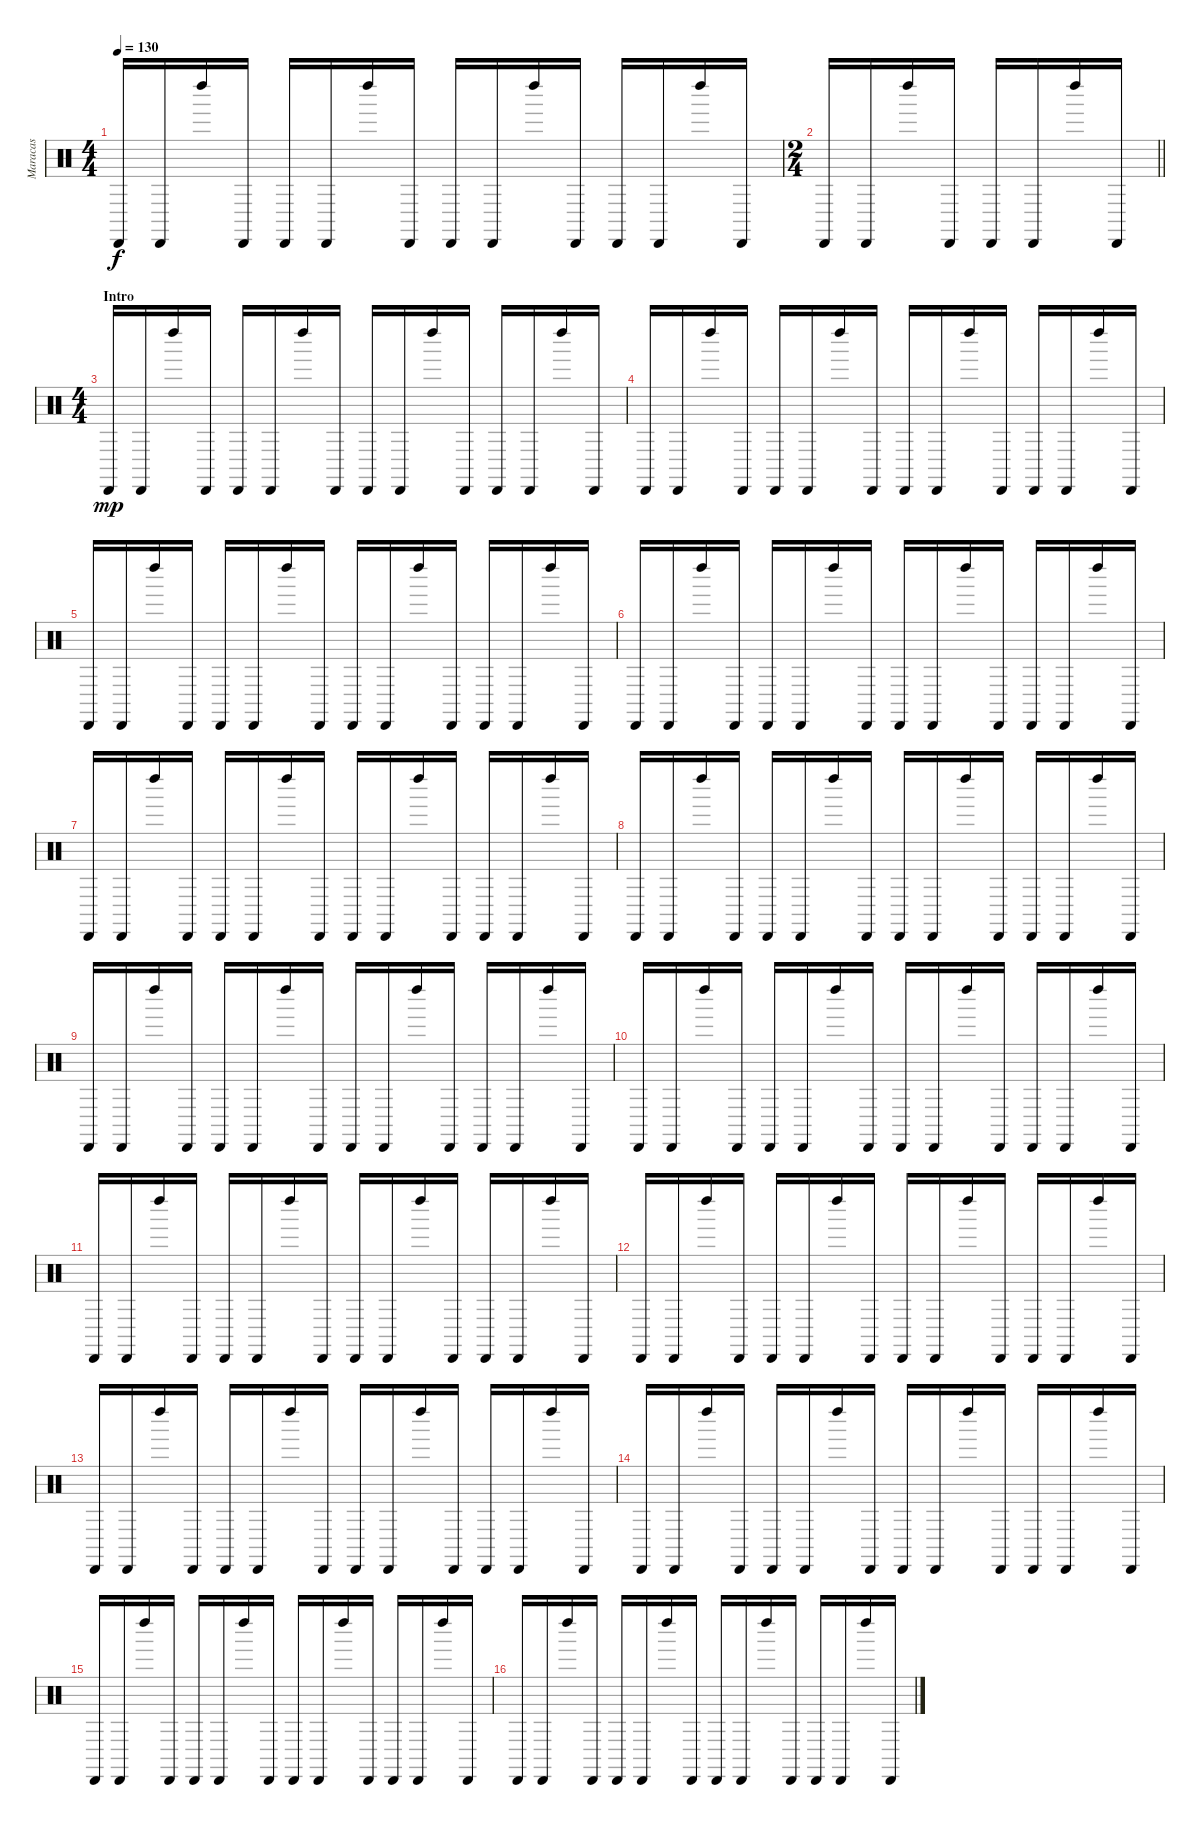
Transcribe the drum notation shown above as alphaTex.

\track ("Maracas" "Maracas") {instrument percussion}
\staff {score}
\articulation defaults
\ts (4 4)
\tempo 130
\clef neutral
\ks c "Cabasa (hit)".16{dy f} "Cabasa (hit)".16 "Left Maraca (hit)".16 "Cabasa (hit)".16 "Cabasa (hit)".16 "Cabasa (hit)".16 "Left Maraca (hit)".16 "Cabasa (hit)".16 "Cabasa (hit)".16 "Cabasa (hit)".16 "Left Maraca (hit)".16 "Cabasa (hit)".16 "Cabasa (hit)".16 "Cabasa (hit)".16 "Left Maraca (hit)".16 "Cabasa (hit)".16
|
\ts (2 4)
\barLineRight lightlight "Cabasa (hit)".16 "Cabasa (hit)".16 "Left Maraca (hit)".16 "Cabasa (hit)".16 "Cabasa (hit)".16 "Cabasa (hit)".16 "Left Maraca (hit)".16 "Cabasa (hit)".16
|
\ts (4 4)
\section ("" "Intro")
"Cabasa (hit)".16{dy mp} "Cabasa (hit)".16 "Left Maraca (hit)".16 "Cabasa (hit)".16 "Cabasa (hit)".16 "Cabasa (hit)".16 "Left Maraca (hit)".16 "Cabasa (hit)".16 "Cabasa (hit)".16 "Cabasa (hit)".16 "Left Maraca (hit)".16 "Cabasa (hit)".16 "Cabasa (hit)".16 "Cabasa (hit)".16 "Left Maraca (hit)".16 "Cabasa (hit)".16 |
"Cabasa (hit)".16 "Cabasa (hit)".16 "Left Maraca (hit)".16 "Cabasa (hit)".16 "Cabasa (hit)".16 "Cabasa (hit)".16 "Left Maraca (hit)".16 "Cabasa (hit)".16 "Cabasa (hit)".16 "Cabasa (hit)".16 "Left Maraca (hit)".16 "Cabasa (hit)".16 "Cabasa (hit)".16 "Cabasa (hit)".16 "Left Maraca (hit)".16 "Cabasa (hit)".16 |
"Cabasa (hit)".16 "Cabasa (hit)".16 "Left Maraca (hit)".16 "Cabasa (hit)".16 "Cabasa (hit)".16 "Cabasa (hit)".16 "Left Maraca (hit)".16 "Cabasa (hit)".16 "Cabasa (hit)".16 "Cabasa (hit)".16 "Left Maraca (hit)".16 "Cabasa (hit)".16 "Cabasa (hit)".16 "Cabasa (hit)".16 "Left Maraca (hit)".16 "Cabasa (hit)".16 |
"Cabasa (hit)".16 "Cabasa (hit)".16 "Left Maraca (hit)".16 "Cabasa (hit)".16 "Cabasa (hit)".16 "Cabasa (hit)".16 "Left Maraca (hit)".16 "Cabasa (hit)".16 "Cabasa (hit)".16 "Cabasa (hit)".16 "Left Maraca (hit)".16 "Cabasa (hit)".16 "Cabasa (hit)".16 "Cabasa (hit)".16 "Left Maraca (hit)".16 "Cabasa (hit)".16 |
"Cabasa (hit)".16 "Cabasa (hit)".16 "Left Maraca (hit)".16 "Cabasa (hit)".16 "Cabasa (hit)".16 "Cabasa (hit)".16 "Left Maraca (hit)".16 "Cabasa (hit)".16 "Cabasa (hit)".16 "Cabasa (hit)".16 "Left Maraca (hit)".16 "Cabasa (hit)".16 "Cabasa (hit)".16 "Cabasa (hit)".16 "Left Maraca (hit)".16 "Cabasa (hit)".16 |
"Cabasa (hit)".16 "Cabasa (hit)".16 "Left Maraca (hit)".16 "Cabasa (hit)".16 "Cabasa (hit)".16 "Cabasa (hit)".16 "Left Maraca (hit)".16 "Cabasa (hit)".16 "Cabasa (hit)".16 "Cabasa (hit)".16 "Left Maraca (hit)".16 "Cabasa (hit)".16 "Cabasa (hit)".16 "Cabasa (hit)".16 "Left Maraca (hit)".16 "Cabasa (hit)".16 |
"Cabasa (hit)".16 "Cabasa (hit)".16 "Left Maraca (hit)".16 "Cabasa (hit)".16 "Cabasa (hit)".16 "Cabasa (hit)".16 "Left Maraca (hit)".16 "Cabasa (hit)".16 "Cabasa (hit)".16 "Cabasa (hit)".16 "Left Maraca (hit)".16 "Cabasa (hit)".16 "Cabasa (hit)".16 "Cabasa (hit)".16 "Left Maraca (hit)".16 "Cabasa (hit)".16 |
"Cabasa (hit)".16 "Cabasa (hit)".16 "Left Maraca (hit)".16 "Cabasa (hit)".16 "Cabasa (hit)".16 "Cabasa (hit)".16 "Left Maraca (hit)".16 "Cabasa (hit)".16 "Cabasa (hit)".16 "Cabasa (hit)".16 "Left Maraca (hit)".16 "Cabasa (hit)".16 "Cabasa (hit)".16 "Cabasa (hit)".16 "Left Maraca (hit)".16 "Cabasa (hit)".16 |
"Cabasa (hit)".16 "Cabasa (hit)".16 "Left Maraca (hit)".16 "Cabasa (hit)".16 "Cabasa (hit)".16 "Cabasa (hit)".16 "Left Maraca (hit)".16 "Cabasa (hit)".16 "Cabasa (hit)".16 "Cabasa (hit)".16 "Left Maraca (hit)".16 "Cabasa (hit)".16 "Cabasa (hit)".16 "Cabasa (hit)".16 "Left Maraca (hit)".16 "Cabasa (hit)".16 |
"Cabasa (hit)".16 "Cabasa (hit)".16 "Left Maraca (hit)".16 "Cabasa (hit)".16 "Cabasa (hit)".16 "Cabasa (hit)".16 "Left Maraca (hit)".16 "Cabasa (hit)".16 "Cabasa (hit)".16 "Cabasa (hit)".16 "Left Maraca (hit)".16 "Cabasa (hit)".16 "Cabasa (hit)".16 "Cabasa (hit)".16 "Left Maraca (hit)".16 "Cabasa (hit)".16 |
"Cabasa (hit)".16 "Cabasa (hit)".16 "Left Maraca (hit)".16 "Cabasa (hit)".16 "Cabasa (hit)".16 "Cabasa (hit)".16 "Left Maraca (hit)".16 "Cabasa (hit)".16 "Cabasa (hit)".16 "Cabasa (hit)".16 "Left Maraca (hit)".16 "Cabasa (hit)".16 "Cabasa (hit)".16 "Cabasa (hit)".16 "Left Maraca (hit)".16 "Cabasa (hit)".16 |
"Cabasa (hit)".16 "Cabasa (hit)".16 "Left Maraca (hit)".16 "Cabasa (hit)".16 "Cabasa (hit)".16 "Cabasa (hit)".16 "Left Maraca (hit)".16 "Cabasa (hit)".16 "Cabasa (hit)".16 "Cabasa (hit)".16 "Left Maraca (hit)".16 "Cabasa (hit)".16 "Cabasa (hit)".16 "Cabasa (hit)".16 "Left Maraca (hit)".16 "Cabasa (hit)".16 |
"Cabasa (hit)".16 "Cabasa (hit)".16 "Left Maraca (hit)".16 "Cabasa (hit)".16 "Cabasa (hit)".16 "Cabasa (hit)".16 "Left Maraca (hit)".16 "Cabasa (hit)".16 "Cabasa (hit)".16 "Cabasa (hit)".16 "Left Maraca (hit)".16 "Cabasa (hit)".16 "Cabasa (hit)".16 "Cabasa (hit)".16 "Left Maraca (hit)".16 "Cabasa (hit)".16 |
"Cabasa (hit)".16 "Cabasa (hit)".16 "Left Maraca (hit)".16 "Cabasa (hit)".16 "Cabasa (hit)".16 "Cabasa (hit)".16 "Left Maraca (hit)".16 "Cabasa (hit)".16 "Cabasa (hit)".16 "Cabasa (hit)".16 "Left Maraca (hit)".16 "Cabasa (hit)".16 "Cabasa (hit)".16 "Cabasa (hit)".16 "Left Maraca (hit)".16 "Cabasa (hit)".16
